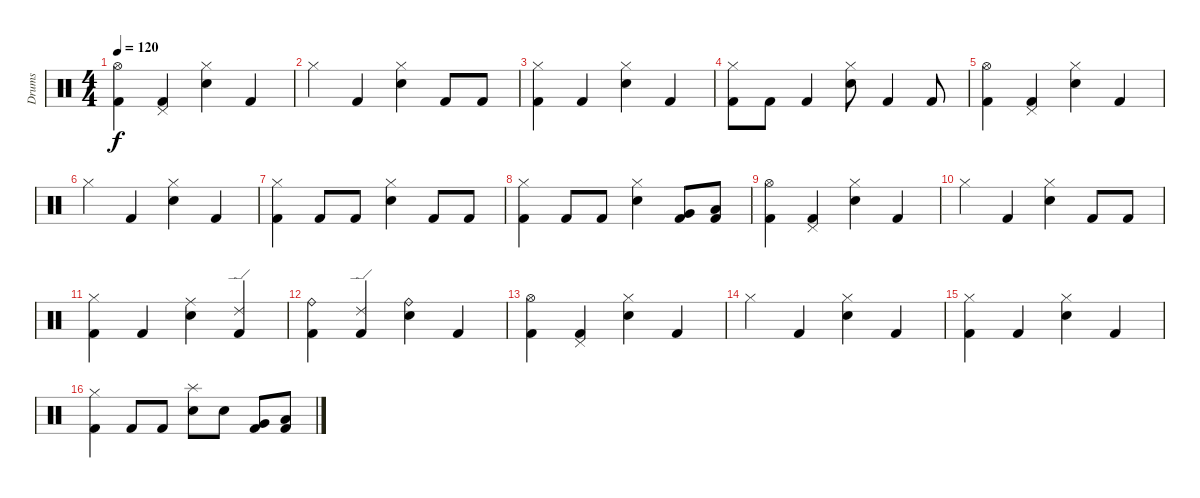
\track ("Drums" "Drums") {instrument percussion}
\staff {score}
\articulation defaults
\ts (4 4)
\tempo 120
\clef neutral
\ks c
("Hi-Hat (open)" "Kick (hit) 2").4{dy f} ("Pedal Hi-Hat (hit)" "Kick (hit) 2").4 ("Hi-Hat (closed)" "Electric Snare (hit)").4 "Kick (hit) 2".4 |
"Hi-Hat (closed)".4 "Kick (hit) 2".4 ("Hi-Hat (closed)" "Electric Snare (hit)").4 "Kick (hit) 2".8 "Kick (hit) 2".8 |
("Hi-Hat (closed)" "Kick (hit) 2").4 "Kick (hit) 2".4 ("Hi-Hat (closed)" "Electric Snare (hit)").4 "Kick (hit) 2".4 |
("Hi-Hat (closed)" "Kick (hit) 2").8 "Kick (hit) 2".8 "Kick (hit) 2".4 ("Hi-Hat (closed)" "Electric Snare (hit)").8 "Kick (hit) 2".4 "Kick (hit) 2".8 |
("Hi-Hat (open)" "Kick (hit) 2").4 ("Pedal Hi-Hat (hit)" "Kick (hit) 2").4 ("Hi-Hat (closed)" "Electric Snare (hit)").4 "Kick (hit) 2".4 |
"Hi-Hat (closed)".4 "Kick (hit) 2".4 ("Hi-Hat (closed)" "Electric Snare (hit)").4 "Kick (hit) 2".4 |
("Hi-Hat (closed)" "Kick (hit) 2").4 "Kick (hit) 2".8 "Kick (hit) 2".8 ("Hi-Hat (closed)" "Electric Snare (hit)").4 "Kick (hit) 2".8 "Kick (hit) 2".8 |
("Hi-Hat (closed)" "Kick (hit) 2").4 "Kick (hit) 2".8 "Kick (hit) 2".8 ("Hi-Hat (closed)" "Electric Snare (hit)").4 ("Very Low Tom (hit)" "Kick (hit) 2").8 ("Low Floor Tom (hit)" "Kick (hit) 2").8 |
("Hi-Hat (open)" "Kick (hit) 2").4 ("Pedal Hi-Hat (hit)" "Kick (hit) 2").4 ("Hi-Hat (closed)" "Electric Snare (hit)").4 "Kick (hit) 2".4 |
"Hi-Hat (closed)".4 "Kick (hit) 2".4 ("Hi-Hat (closed)" "Electric Snare (hit)").4 "Kick (hit) 2".8 "Kick (hit) 2".8 |
("Hi-Hat (closed)" "Kick (hit) 2").4 "Kick (hit) 2".4 ("Ride (middle)" "Electric Snare (hit)").4 ("Ride (edge) 2" "Kick (hit) 2").4 |
("Ride (bell)" "Kick (hit) 2").4 ("Ride (edge) 2" "Kick (hit) 2").4 ("Ride (bell)" "Electric Snare (hit)").4 "Kick (hit) 2".4 |
("Hi-Hat (open)" "Kick (hit) 2").4 ("Pedal Hi-Hat (hit)" "Kick (hit) 2").4 ("Hi-Hat (closed)" "Electric Snare (hit)").4 "Kick (hit) 2".4 |
"Hi-Hat (closed)".4 "Kick (hit) 2".4 ("Hi-Hat (closed)" "Electric Snare (hit)").4 "Kick (hit) 2".4 |
("Hi-Hat (closed)" "Kick (hit) 2").4 "Kick (hit) 2".4 ("Hi-Hat (closed)" "Electric Snare (hit)").4 "Kick (hit) 2".4 |
("Hi-Hat (closed)" "Kick (hit) 2").4 "Kick (hit) 2".8 "Kick (hit) 2".8 ("Splash (hit)" "Electric Snare (hit)").8 "Electric Snare (hit)".8 ("Very Low Tom (hit)" "Kick (hit) 2").8 ("Low Floor Tom (hit)" "Kick (hit) 2").8
